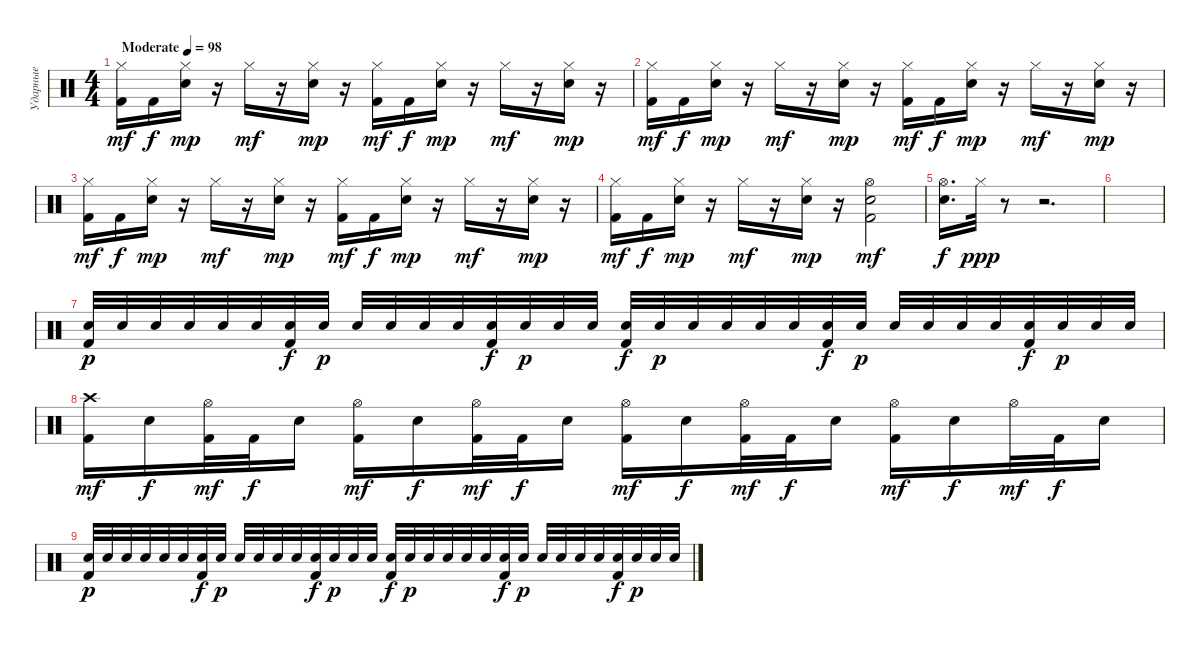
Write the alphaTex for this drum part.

\track ("Ударные" "Ударные") {instrument percussion}
\staff {score}
\articulation defaults
\ts (4 4)
\tempo (98 "Moderate")
\clef neutral
\ks c
("Hi-Hat (closed)" "Kick (hit) 2").16{dy mf} "Kick (hit) 2".16{dy f} ("Hi-Hat (closed)" "Electric Snare (hit)").16{dy mp} r.16 "Hi-Hat (closed)".16{dy mf} r.16 ("Hi-Hat (closed)" "Electric Snare (hit)").16{dy mp} r.16 ("Hi-Hat (closed)" "Kick (hit) 2").16{dy mf} "Kick (hit) 2".16{dy f} ("Hi-Hat (closed)" "Electric Snare (hit)").16{dy mp} r.16 "Hi-Hat (closed)".16{dy mf} r.16 ("Hi-Hat (closed)" "Electric Snare (hit)").16{dy mp} r.16 |
("Hi-Hat (closed)" "Kick (hit) 2").16{dy mf} "Kick (hit) 2".16{dy f} ("Hi-Hat (closed)" "Electric Snare (hit)").16{dy mp} r.16 "Hi-Hat (closed)".16{dy mf} r.16 ("Hi-Hat (closed)" "Electric Snare (hit)").16{dy mp} r.16 ("Hi-Hat (closed)" "Kick (hit) 2").16{dy mf} "Kick (hit) 2".16{dy f} ("Hi-Hat (closed)" "Electric Snare (hit)").16{dy mp} r.16 "Hi-Hat (closed)".16{dy mf} r.16 ("Hi-Hat (closed)" "Electric Snare (hit)").16{dy mp} r.16 |
("Hi-Hat (closed)" "Kick (hit) 2").16{dy mf} "Kick (hit) 2".16{dy f} ("Hi-Hat (closed)" "Electric Snare (hit)").16{dy mp} r.16 "Hi-Hat (closed)".16{dy mf} r.16 ("Hi-Hat (closed)" "Electric Snare (hit)").16{dy mp} r.16 ("Hi-Hat (closed)" "Kick (hit) 2").16{dy mf} "Kick (hit) 2".16{dy f} ("Hi-Hat (closed)" "Electric Snare (hit)").16{dy mp} r.16 "Hi-Hat (closed)".16{dy mf} r.16 ("Hi-Hat (closed)" "Electric Snare (hit)").16{dy mp} r.16 |
("Hi-Hat (closed)" "Kick (hit) 2").16{dy mf} "Kick (hit) 2".16{dy f} ("Hi-Hat (closed)" "Electric Snare (hit)").16{dy mp} r.16 "Hi-Hat (closed)".16{dy mf} r.16 ("Hi-Hat (closed)" "Electric Snare (hit)").16{dy mp} r.16 ("Hi-Hat (open)" "Electric Snare (hit)" "Kick (hit) 2").2{dy mf} |
("Hi-Hat (open)" "Electric Snare (hit)").16{d dy f} "Hi-Hat (closed)".32{dy ppp} r.8 r.2{d} |
|
("Electric Snare (hit)" "Kick (hit) 2").32{dy p} "Electric Snare (hit)".32 "Electric Snare (hit)".32 "Electric Snare (hit)".32 "Electric Snare (hit)".32 "Electric Snare (hit)".32 ("Electric Snare (hit)" "Kick (hit) 2").32{dy f} "Electric Snare (hit)".32{dy p} "Electric Snare (hit)".32 "Electric Snare (hit)".32 "Electric Snare (hit)".32 "Electric Snare (hit)".32 ("Electric Snare (hit)" "Kick (hit) 2").32{dy f} "Electric Snare (hit)".32{dy p} "Electric Snare (hit)".32 "Electric Snare (hit)".32 ("Electric Snare (hit)" "Kick (hit) 2").32{dy f} "Electric Snare (hit)".32{dy p} "Electric Snare (hit)".32 "Electric Snare (hit)".32 "Electric Snare (hit)".32 "Electric Snare (hit)".32 ("Electric Snare (hit)" "Kick (hit) 2").32{dy f} "Electric Snare (hit)".32{dy p} "Electric Snare (hit)".32 "Electric Snare (hit)".32 "Electric Snare (hit)".32 "Electric Snare (hit)".32 ("Electric Snare (hit)" "Kick (hit) 2").32{dy f} "Electric Snare (hit)".32{dy p} "Electric Snare (hit)".32 "Electric Snare (hit)".32 |
("Crash high (hit)" "Kick (hit) 2").16{dy mf} "Electric Snare (hit)".16{dy f} ("Hi-Hat (open)" "Kick (hit) 2").32{dy mf} "Kick (hit) 2".32{dy f} "Electric Snare (hit)".16 ("Hi-Hat (open)" "Kick (hit) 2").16{dy mf} "Electric Snare (hit)".16{dy f} ("Hi-Hat (open)" "Kick (hit) 2").32{dy mf} "Kick (hit) 2".32{dy f} "Electric Snare (hit)".16 ("Hi-Hat (open)" "Kick (hit) 2").16{dy mf} "Electric Snare (hit)".16{dy f} ("Hi-Hat (open)" "Kick (hit) 2").32{dy mf} "Kick (hit) 2".32{dy f} "Electric Snare (hit)".16 ("Hi-Hat (open)" "Kick (hit) 2").16{dy mf} "Electric Snare (hit)".16{dy f} "Hi-Hat (open)".32{dy mf} "Kick (hit) 2".32{dy f} "Electric Snare (hit)".16 |
("Electric Snare (hit)" "Kick (hit) 2").32{dy p} "Electric Snare (hit)".32 "Electric Snare (hit)".32 "Electric Snare (hit)".32 "Electric Snare (hit)".32 "Electric Snare (hit)".32 ("Electric Snare (hit)" "Kick (hit) 2").32{dy f} "Electric Snare (hit)".32{dy p} "Electric Snare (hit)".32 "Electric Snare (hit)".32 "Electric Snare (hit)".32 "Electric Snare (hit)".32 ("Electric Snare (hit)" "Kick (hit) 2").32{dy f} "Electric Snare (hit)".32{dy p} "Electric Snare (hit)".32 "Electric Snare (hit)".32 ("Electric Snare (hit)" "Kick (hit) 2").32{dy f} "Electric Snare (hit)".32{dy p} "Electric Snare (hit)".32 "Electric Snare (hit)".32 "Electric Snare (hit)".32 "Electric Snare (hit)".32 ("Electric Snare (hit)" "Kick (hit) 2").32{dy f} "Electric Snare (hit)".32{dy p} "Electric Snare (hit)".32 "Electric Snare (hit)".32 "Electric Snare (hit)".32 "Electric Snare (hit)".32 ("Electric Snare (hit)" "Kick (hit) 2").32{dy f} "Electric Snare (hit)".32{dy p} "Electric Snare (hit)".32 "Electric Snare (hit)".32
